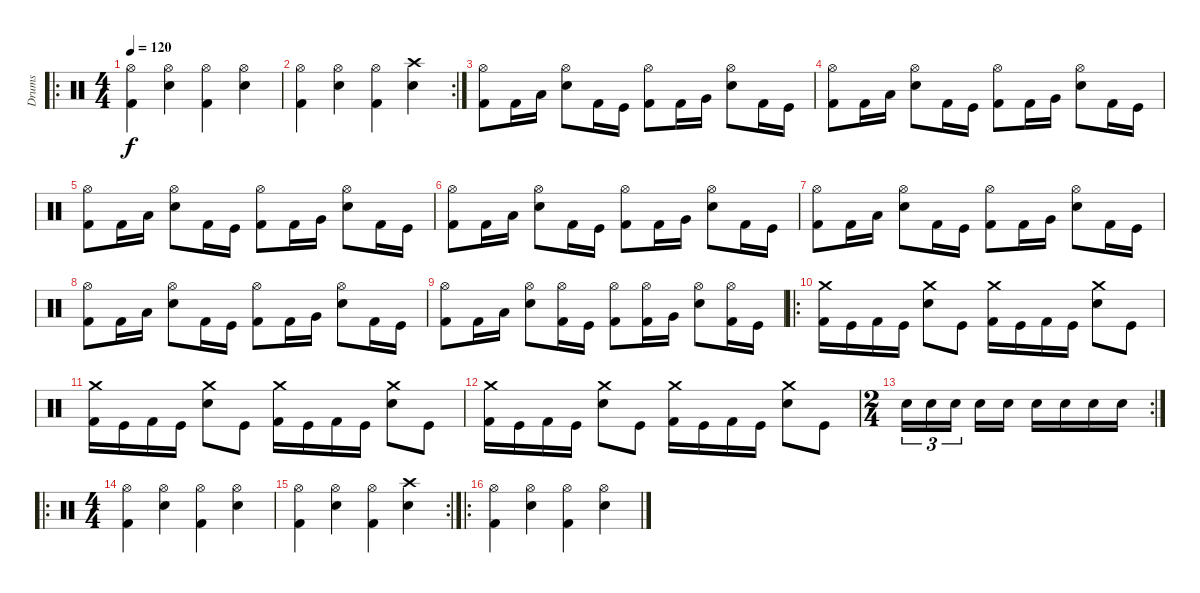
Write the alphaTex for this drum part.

\track ("Drums" "Drums") {instrument percussion}
\staff {score}
\articulation defaults
\ro
\ts (4 4)
\tempo 120
\clef neutral
\ks c
("Hi-Hat (open)" "Kick (hit) 2").4{dy f} ("Hi-Hat (open)" "Electric Snare (hit)").4 ("Hi-Hat (open)" "Kick (hit) 2").4 ("Hi-Hat (open)" "Electric Snare (hit)").4 |
\rc 2
("Hi-Hat (open)" "Kick (hit) 2").4 ("Hi-Hat (open)" "Electric Snare (hit)").4 ("Hi-Hat (open)" "Kick (hit) 2").4 ("Crash high (hit)" "Electric Snare (hit)").4 |
("Hi-Hat (open)" "Kick (hit) 2").8 "Kick (hit) 2".16 "Low Tom (hit)".16 ("Hi-Hat (open)" "Snare (hit) 2").8 "Kick (hit) 2".16 "Kick (hit)".16 ("Hi-Hat (open)" "Kick (hit) 2").8 "Kick (hit) 2".16 "Very Low Tom (hit)".16 ("Hi-Hat (open)" "Snare (hit) 2").8 "Kick (hit) 2".16 "Kick (hit)".16 |
("Hi-Hat (open)" "Kick (hit) 2").8 "Kick (hit) 2".16 "Low Tom (hit)".16 ("Hi-Hat (open)" "Snare (hit) 2").8 "Kick (hit) 2".16 "Kick (hit)".16 ("Hi-Hat (open)" "Kick (hit) 2").8 "Kick (hit) 2".16 "Very Low Tom (hit)".16 ("Hi-Hat (open)" "Snare (hit) 2").8 "Kick (hit) 2".16 "Kick (hit)".16 |
("Hi-Hat (open)" "Kick (hit) 2").8 "Kick (hit) 2".16 "Low Tom (hit)".16 ("Hi-Hat (open)" "Snare (hit) 2").8 "Kick (hit) 2".16 "Kick (hit)".16 ("Hi-Hat (open)" "Kick (hit) 2").8 "Kick (hit) 2".16 "Very Low Tom (hit)".16 ("Hi-Hat (open)" "Snare (hit) 2").8 "Kick (hit) 2".16 "Kick (hit)".16 |
("Hi-Hat (open)" "Kick (hit) 2").8 "Kick (hit) 2".16 "Low Tom (hit)".16 ("Hi-Hat (open)" "Snare (hit) 2").8 "Kick (hit) 2".16 "Kick (hit)".16 ("Hi-Hat (open)" "Kick (hit) 2").8 "Kick (hit) 2".16 "Very Low Tom (hit)".16 ("Hi-Hat (open)" "Snare (hit) 2").8 "Kick (hit) 2".16 "Kick (hit)".16 |
("Hi-Hat (open)" "Kick (hit) 2").8 "Kick (hit) 2".16 "Low Tom (hit)".16 ("Hi-Hat (open)" "Snare (hit) 2").8 "Kick (hit) 2".16 "Kick (hit)".16 ("Hi-Hat (open)" "Kick (hit) 2").8 "Kick (hit) 2".16 "Very Low Tom (hit)".16 ("Hi-Hat (open)" "Snare (hit) 2").8 "Kick (hit) 2".16 "Kick (hit)".16 |
("Hi-Hat (open)" "Kick (hit) 2").8 "Kick (hit) 2".16 "Low Tom (hit)".16 ("Hi-Hat (open)" "Snare (hit) 2").8 "Kick (hit) 2".16 "Kick (hit)".16 ("Hi-Hat (open)" "Kick (hit) 2").8 "Kick (hit) 2".16 "Very Low Tom (hit)".16 ("Hi-Hat (open)" "Snare (hit) 2").8 "Kick (hit) 2".16 "Kick (hit)".16 |
("Hi-Hat (open)" "Kick (hit) 2").8 "Kick (hit) 2".16 "Low Tom (hit)".16 ("Hi-Hat (open)" "Snare (hit) 2").8 ("Hi-Hat (open)" "Kick (hit) 2").16 "Kick (hit)".16 ("Hi-Hat (open)" "Kick (hit) 2").8 ("Hi-Hat (open)" "Kick (hit) 2").16 "Very Low Tom (hit)".16 ("Hi-Hat (open)" "Snare (hit) 2").8 ("Hi-Hat (open)" "Kick (hit) 2").16 "Kick (hit)".16 |
\ro
("Crash medium (hit)" "Kick (hit) 2").16 "Kick (hit)".16 "Kick (hit) 2".16 "Kick (hit)".16 ("Crash medium (hit)" "Snare (hit) 2").8 "Kick (hit)".8 ("Crash medium (hit)" "Kick (hit) 2").16 "Kick (hit)".16 "Kick (hit) 2".16 "Kick (hit)".16 ("Crash medium (hit)" "Snare (hit) 2").8 "Kick (hit)".8 |
("Crash medium (hit)" "Kick (hit) 2").16 "Kick (hit)".16 "Kick (hit) 2".16 "Kick (hit)".16 ("Crash medium (hit)" "Snare (hit) 2").8 "Kick (hit)".8 ("Crash medium (hit)" "Kick (hit) 2").16 "Kick (hit)".16 "Kick (hit) 2".16 "Kick (hit)".16 ("Crash medium (hit)" "Snare (hit) 2").8 "Kick (hit)".8 |
("Crash medium (hit)" "Kick (hit) 2").16 "Kick (hit)".16 "Kick (hit) 2".16 "Kick (hit)".16 ("Crash medium (hit)" "Snare (hit) 2").8 "Kick (hit)".8 ("Crash medium (hit)" "Kick (hit) 2").16 "Kick (hit)".16 "Kick (hit) 2".16 "Kick (hit)".16 ("Crash medium (hit)" "Snare (hit) 2").8 "Kick (hit)".8 |
\rc 2
\ts (2 4)
"Snare (hit) 2".16{tu (3 2)} "Snare (hit) 2".16{tu (3 2)} "Snare (hit) 2".16{tu (3 2)} "Snare (hit) 2".16 "Snare (hit) 2".16 "Snare (hit) 2".16 "Snare (hit) 2".16 "Snare (hit) 2".16 "Snare (hit) 2".16 |
\ro
\ts (4 4)
("Hi-Hat (open)" "Kick (hit) 2").4 ("Hi-Hat (open)" "Electric Snare (hit)").4 ("Hi-Hat (open)" "Kick (hit) 2").4 ("Hi-Hat (open)" "Electric Snare (hit)").4 |
\rc 2
("Hi-Hat (open)" "Kick (hit) 2").4 ("Hi-Hat (open)" "Electric Snare (hit)").4 ("Hi-Hat (open)" "Kick (hit) 2").4 ("Crash high (hit)" "Electric Snare (hit)").4 |
\ro
("Hi-Hat (open)" "Kick (hit) 2").4 ("Hi-Hat (open)" "Electric Snare (hit)").4 ("Hi-Hat (open)" "Kick (hit) 2").4 ("Hi-Hat (open)" "Electric Snare (hit)").4
